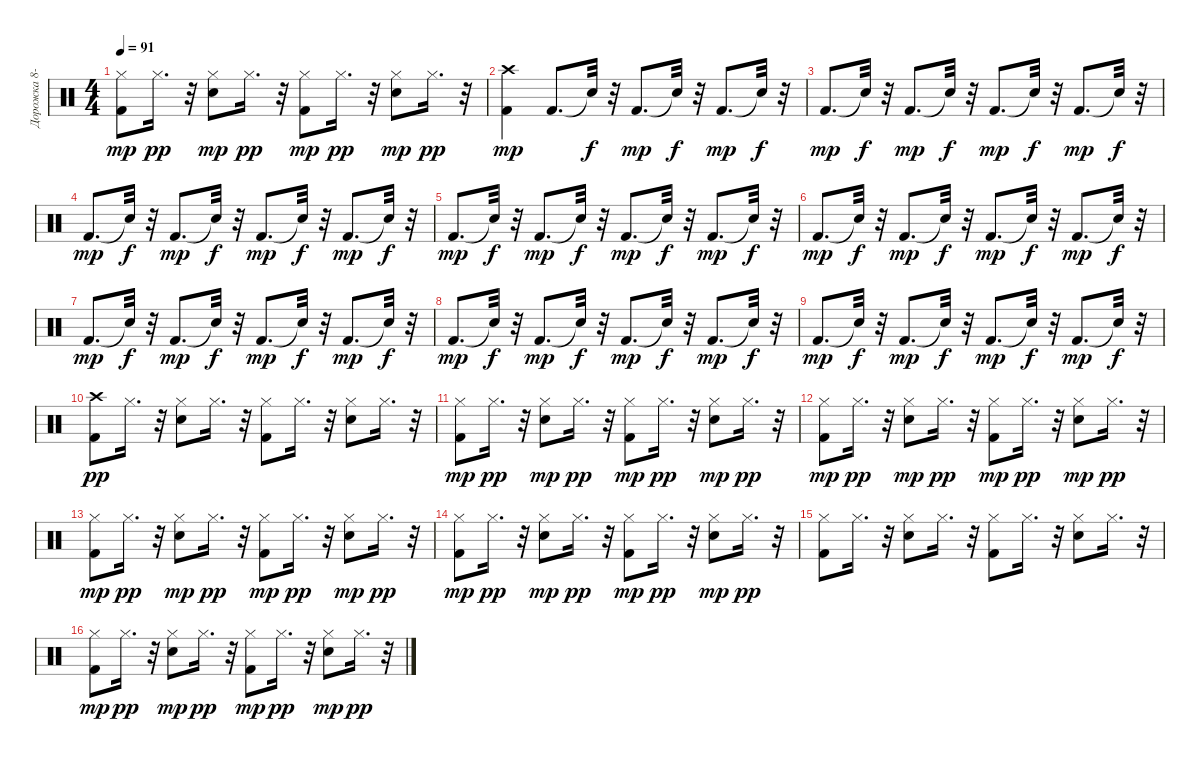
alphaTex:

\track ("Дорожка 8-9-10-11" "Дорожка 8-") {instrument percussion}
\staff {score}
\articulation defaults
\ts (4 4)
\tempo 91
\clef neutral
\ks c
("Hi-Hat (closed)" "Kick (hit) 2").8{dy mp} "Hi-Hat (closed)".16{d dy pp} r.32 ("Hi-Hat (closed)" "Electric Snare (hit)").8{dy mp} "Hi-Hat (closed)".16{d dy pp} r.32 ("Hi-Hat (closed)" "Kick (hit) 2").8{dy mp} "Hi-Hat (closed)".16{d dy pp} r.32 ("Hi-Hat (closed)" "Electric Snare (hit)").8{dy mp} "Hi-Hat (closed)".16{d dy pp} r.32 |
("Kick (hit) 2" "Crash high (hit)").4{dy mp} "Kick (hit) 2".8{d} "Snare (hit)"{t}.32{dy f} r.32 "Kick (hit) 2".8{d dy mp} "Snare (hit)"{t}.32{dy f} r.32 "Kick (hit) 2".8{d dy mp} "Snare (hit)"{t}.32{dy f} r.32 |
"Kick (hit) 2".8{d dy mp} "Snare (hit)"{t}.32{dy f} r.32 "Kick (hit) 2".8{d dy mp} "Snare (hit)"{t}.32{dy f} r.32 "Kick (hit) 2".8{d dy mp} "Snare (hit)"{t}.32{dy f} r.32 "Kick (hit) 2".8{d dy mp} "Snare (hit)"{t}.32{dy f} r.32 |
"Kick (hit) 2".8{d dy mp} "Snare (hit)"{t}.32{dy f} r.32 "Kick (hit) 2".8{d dy mp} "Snare (hit)"{t}.32{dy f} r.32 "Kick (hit) 2".8{d dy mp} "Snare (hit)"{t}.32{dy f} r.32 "Kick (hit) 2".8{d dy mp} "Snare (hit)"{t}.32{dy f} r.32 |
"Kick (hit) 2".8{d dy mp} "Snare (hit)"{t}.32{dy f} r.32 "Kick (hit) 2".8{d dy mp} "Snare (hit)"{t}.32{dy f} r.32 "Kick (hit) 2".8{d dy mp} "Snare (hit)"{t}.32{dy f} r.32 "Kick (hit) 2".8{d dy mp} "Snare (hit)"{t}.32{dy f} r.32 |
"Kick (hit) 2".8{d dy mp} "Snare (hit)"{t}.32{dy f} r.32 "Kick (hit) 2".8{d dy mp} "Snare (hit)"{t}.32{dy f} r.32 "Kick (hit) 2".8{d dy mp} "Snare (hit)"{t}.32{dy f} r.32 "Kick (hit) 2".8{d dy mp} "Snare (hit)"{t}.32{dy f} r.32 |
"Kick (hit) 2".8{d dy mp} "Snare (hit)"{t}.32{dy f} r.32 "Kick (hit) 2".8{d dy mp} "Snare (hit)"{t}.32{dy f} r.32 "Kick (hit) 2".8{d dy mp} "Snare (hit)"{t}.32{dy f} r.32 "Kick (hit) 2".8{d dy mp} "Snare (hit)"{t}.32{dy f} r.32 |
"Kick (hit) 2".8{d dy mp} "Snare (hit)"{t}.32{dy f} r.32 "Kick (hit) 2".8{d dy mp} "Snare (hit)"{t}.32{dy f} r.32 "Kick (hit) 2".8{d dy mp} "Snare (hit)"{t}.32{dy f} r.32 "Kick (hit) 2".8{d dy mp} "Snare (hit)"{t}.32{dy f} r.32 |
"Kick (hit) 2".8{d dy mp} "Snare (hit)"{t}.32{dy f} r.32 "Kick (hit) 2".8{d dy mp} "Snare (hit)"{t}.32{dy f} r.32 "Kick (hit) 2".8{d dy mp} "Snare (hit)"{t}.32{dy f} r.32 "Kick (hit) 2".8{d dy mp} "Snare (hit)"{t}.32{dy f} r.32 |
("Kick (hit) 2" "Crash high (hit)").8{dy pp} "Hi-Hat (closed)".16{d} r.32 ("Electric Snare (hit)" "Hi-Hat (closed)").8 "Hi-Hat (closed)".16{d} r.32 ("Kick (hit) 2" "Hi-Hat (closed)").8 "Hi-Hat (closed)".16{d} r.32 ("Electric Snare (hit)" "Hi-Hat (closed)").8 "Hi-Hat (closed)".16{d} r.32 |
("Hi-Hat (closed)" "Kick (hit) 2").8{dy mp} "Hi-Hat (closed)".16{d dy pp} r.32 ("Hi-Hat (closed)" "Electric Snare (hit)").8{dy mp} "Hi-Hat (closed)".16{d dy pp} r.32 ("Hi-Hat (closed)" "Kick (hit) 2").8{dy mp} "Hi-Hat (closed)".16{d dy pp} r.32 ("Hi-Hat (closed)" "Electric Snare (hit)").8{dy mp} "Hi-Hat (closed)".16{d dy pp} r.32 |
("Hi-Hat (closed)" "Kick (hit) 2").8{dy mp} "Hi-Hat (closed)".16{d dy pp} r.32 ("Hi-Hat (closed)" "Electric Snare (hit)").8{dy mp} "Hi-Hat (closed)".16{d dy pp} r.32 ("Hi-Hat (closed)" "Kick (hit) 2").8{dy mp} "Hi-Hat (closed)".16{d dy pp} r.32 ("Hi-Hat (closed)" "Electric Snare (hit)").8{dy mp} "Hi-Hat (closed)".16{d dy pp} r.32 |
("Hi-Hat (closed)" "Kick (hit) 2").8{dy mp} "Hi-Hat (closed)".16{d dy pp} r.32 ("Hi-Hat (closed)" "Electric Snare (hit)").8{dy mp} "Hi-Hat (closed)".16{d dy pp} r.32 ("Hi-Hat (closed)" "Kick (hit) 2").8{dy mp} "Hi-Hat (closed)".16{d dy pp} r.32 ("Hi-Hat (closed)" "Electric Snare (hit)").8{dy mp} "Hi-Hat (closed)".16{d dy pp} r.32 |
("Hi-Hat (closed)" "Kick (hit) 2").8{dy mp} "Hi-Hat (closed)".16{d dy pp} r.32 ("Hi-Hat (closed)" "Electric Snare (hit)").8{dy mp} "Hi-Hat (closed)".16{d dy pp} r.32 ("Hi-Hat (closed)" "Kick (hit) 2").8{dy mp} "Hi-Hat (closed)".16{d dy pp} r.32 ("Hi-Hat (closed)" "Electric Snare (hit)").8{dy mp} "Hi-Hat (closed)".16{d dy pp} r.32 |
("Kick (hit) 2" "Hi-Hat (closed)").8 "Hi-Hat (closed)".16{d} r.32 ("Electric Snare (hit)" "Hi-Hat (closed)").8 "Hi-Hat (closed)".16{d} r.32 ("Kick (hit) 2" "Hi-Hat (closed)").8 "Hi-Hat (closed)".16{d} r.32 ("Electric Snare (hit)" "Hi-Hat (closed)").8 "Hi-Hat (closed)".16{d} r.32 |
("Hi-Hat (closed)" "Kick (hit) 2").8{dy mp} "Hi-Hat (closed)".16{d dy pp} r.32 ("Hi-Hat (closed)" "Electric Snare (hit)").8{dy mp} "Hi-Hat (closed)".16{d dy pp} r.32 ("Hi-Hat (closed)" "Kick (hit) 2").8{dy mp} "Hi-Hat (closed)".16{d dy pp} r.32 ("Hi-Hat (closed)" "Electric Snare (hit)").8{dy mp} "Hi-Hat (closed)".16{d dy pp} r.32
